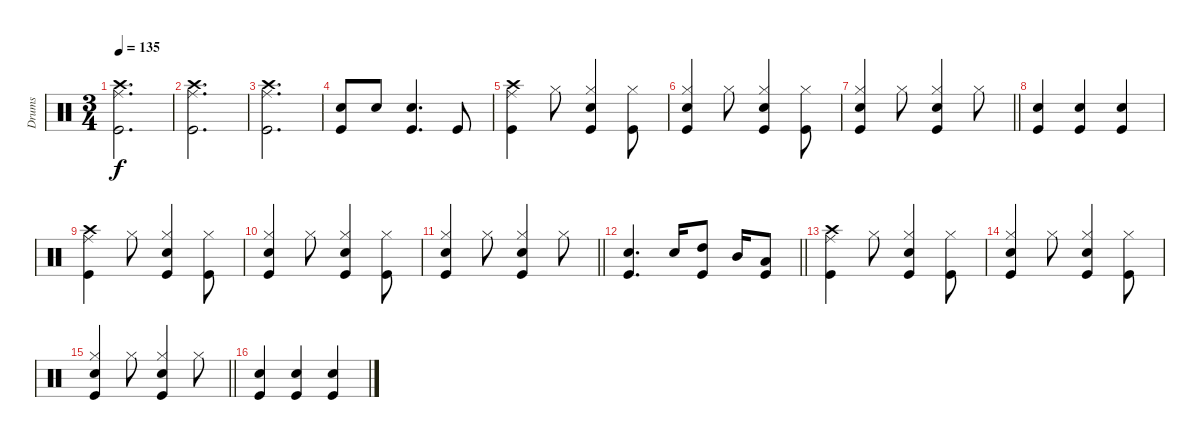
\track ("Drums" "Drums") {instrument percussion}
\staff {score}
\articulation defaults
\ts (3 4)
\tempo 135
\clef neutral
\ks c
("Ride (middle)" "Crash high (hit)" "Kick (hit)").2{d dy f} |
("Ride (middle)" "Crash high (hit)" "Kick (hit)").2{d} |
("Ride (middle)" "Crash high (hit)" "Kick (hit)").2{d} |
("Electric Snare (hit)" "Kick (hit)").8 "Electric Snare (hit)".8 ("Electric Snare (hit)" "Kick (hit)").4{d} "Kick (hit)".8 |
("Ride (middle)" "Crash high (hit)" "Kick (hit)").4 "Hi-Hat (closed)".8 ("Hi-Hat (closed)" "Kick (hit)" "Snare (hit) 2").4 ("Hi-Hat (closed)" "Kick (hit)").8 |
("Hi-Hat (closed)" "Snare (hit) 2" "Kick (hit)").4 "Hi-Hat (closed)".8 ("Hi-Hat (closed)" "Snare (hit) 2" "Kick (hit)").4 ("Hi-Hat (closed)" "Kick (hit)").8 |
\barLineRight lightlight
("Hi-Hat (closed)" "Snare (hit) 2" "Kick (hit)").4 "Hi-Hat (closed)".8 ("Hi-Hat (closed)" "Snare (hit) 2" "Kick (hit)").4 "Hi-Hat (closed)".8 |
("Snare (hit) 2" "Kick (hit)").4 ("Snare (hit) 2" "Kick (hit)").4 ("Snare (hit) 2" "Kick (hit)").4 |
("Ride (middle)" "Crash high (hit)" "Kick (hit)").4 "Hi-Hat (closed)".8 ("Hi-Hat (closed)" "Kick (hit)" "Snare (hit) 2").4 ("Hi-Hat (closed)" "Kick (hit)").8 |
("Hi-Hat (closed)" "Snare (hit) 2" "Kick (hit)").4 "Hi-Hat (closed)".8 ("Hi-Hat (closed)" "Snare (hit) 2" "Kick (hit)").4 ("Hi-Hat (closed)" "Kick (hit)").8 |
\barLineRight lightlight
("Hi-Hat (closed)" "Snare (hit) 2" "Kick (hit)").4 "Hi-Hat (closed)".8 ("Hi-Hat (closed)" "Snare (hit) 2" "Kick (hit)").4 "Hi-Hat (closed)".8 |
\barLineRight lightlight
("Snare (hit) 2" "Kick (hit)").4{d} "Electric Snare (hit)".16 ("High Tom (hit)" "Kick (hit)").8 "Mid Tom (hit)".16 ("Low Tom (hit)" "Kick (hit)").8 |
("Ride (middle)" "Crash high (hit)" "Kick (hit)").4 "Hi-Hat (closed)".8 ("Hi-Hat (closed)" "Kick (hit)" "Snare (hit) 2").4 ("Hi-Hat (closed)" "Kick (hit)").8 |
("Hi-Hat (closed)" "Snare (hit) 2" "Kick (hit)").4 "Hi-Hat (closed)".8 ("Hi-Hat (closed)" "Snare (hit) 2" "Kick (hit)").4 ("Hi-Hat (closed)" "Kick (hit)").8 |
\barLineRight lightlight
("Hi-Hat (closed)" "Snare (hit) 2" "Kick (hit)").4 "Hi-Hat (closed)".8 ("Hi-Hat (closed)" "Snare (hit) 2" "Kick (hit)").4 "Hi-Hat (closed)".8 |
("Snare (hit) 2" "Kick (hit)").4 ("Snare (hit) 2" "Kick (hit)").4 ("Snare (hit) 2" "Kick (hit)").4
